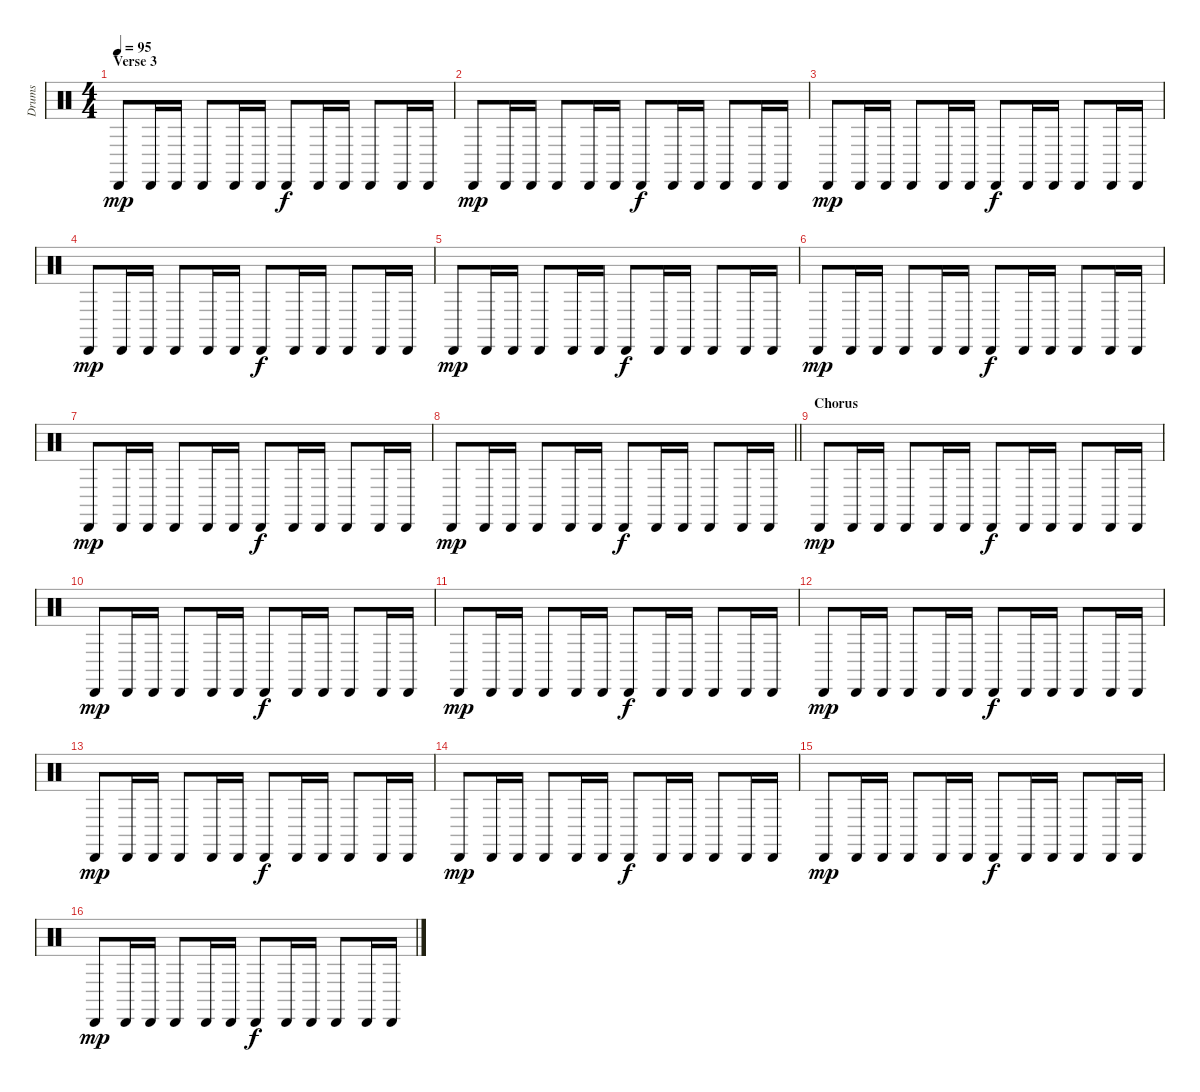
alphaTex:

\track ("Drums" "Drums") {instrument percussion}
\staff {score}
\articulation defaults
\ts (4 4)
\section ("" "Verse 3")
\tempo 95
\clef neutral
\ks c "Cabasa (hit)".8{dy mp} "Cabasa (hit)".16 "Cabasa (hit)".16 "Cabasa (hit)".8 "Cabasa (hit)".16 "Cabasa (hit)".16 "Cabasa (hit)".8{dy f} "Cabasa (hit)".16 "Cabasa (hit)".16 "Cabasa (hit)".8 "Cabasa (hit)".16 "Cabasa (hit)".16
|
"Cabasa (hit)".8{dy mp} "Cabasa (hit)".16 "Cabasa (hit)".16 "Cabasa (hit)".8 "Cabasa (hit)".16 "Cabasa (hit)".16 "Cabasa (hit)".8{dy f} "Cabasa (hit)".16 "Cabasa (hit)".16 "Cabasa (hit)".8 "Cabasa (hit)".16 "Cabasa (hit)".16 |
"Cabasa (hit)".8{dy mp} "Cabasa (hit)".16 "Cabasa (hit)".16 "Cabasa (hit)".8 "Cabasa (hit)".16 "Cabasa (hit)".16 "Cabasa (hit)".8{dy f} "Cabasa (hit)".16 "Cabasa (hit)".16 "Cabasa (hit)".8 "Cabasa (hit)".16 "Cabasa (hit)".16 |
"Cabasa (hit)".8{dy mp} "Cabasa (hit)".16 "Cabasa (hit)".16 "Cabasa (hit)".8 "Cabasa (hit)".16 "Cabasa (hit)".16 "Cabasa (hit)".8{dy f} "Cabasa (hit)".16 "Cabasa (hit)".16 "Cabasa (hit)".8 "Cabasa (hit)".16 "Cabasa (hit)".16 |
"Cabasa (hit)".8{dy mp} "Cabasa (hit)".16 "Cabasa (hit)".16 "Cabasa (hit)".8 "Cabasa (hit)".16 "Cabasa (hit)".16 "Cabasa (hit)".8{dy f} "Cabasa (hit)".16 "Cabasa (hit)".16 "Cabasa (hit)".8 "Cabasa (hit)".16 "Cabasa (hit)".16 |
"Cabasa (hit)".8{dy mp} "Cabasa (hit)".16 "Cabasa (hit)".16 "Cabasa (hit)".8 "Cabasa (hit)".16 "Cabasa (hit)".16 "Cabasa (hit)".8{dy f} "Cabasa (hit)".16 "Cabasa (hit)".16 "Cabasa (hit)".8 "Cabasa (hit)".16 "Cabasa (hit)".16 |
"Cabasa (hit)".8{dy mp} "Cabasa (hit)".16 "Cabasa (hit)".16 "Cabasa (hit)".8 "Cabasa (hit)".16 "Cabasa (hit)".16 "Cabasa (hit)".8{dy f} "Cabasa (hit)".16 "Cabasa (hit)".16 "Cabasa (hit)".8 "Cabasa (hit)".16 "Cabasa (hit)".16 |
\barLineRight lightlight "Cabasa (hit)".8{dy mp} "Cabasa (hit)".16 "Cabasa (hit)".16 "Cabasa (hit)".8 "Cabasa (hit)".16 "Cabasa (hit)".16 "Cabasa (hit)".8{dy f} "Cabasa (hit)".16 "Cabasa (hit)".16 "Cabasa (hit)".8 "Cabasa (hit)".16 "Cabasa (hit)".16
|
\section ("" "Chorus")
"Cabasa (hit)".8{dy mp} "Cabasa (hit)".16 "Cabasa (hit)".16 "Cabasa (hit)".8 "Cabasa (hit)".16 "Cabasa (hit)".16 "Cabasa (hit)".8{dy f} "Cabasa (hit)".16 "Cabasa (hit)".16 "Cabasa (hit)".8 "Cabasa (hit)".16 "Cabasa (hit)".16 |
"Cabasa (hit)".8{dy mp} "Cabasa (hit)".16 "Cabasa (hit)".16 "Cabasa (hit)".8 "Cabasa (hit)".16 "Cabasa (hit)".16 "Cabasa (hit)".8{dy f} "Cabasa (hit)".16 "Cabasa (hit)".16 "Cabasa (hit)".8 "Cabasa (hit)".16 "Cabasa (hit)".16 |
"Cabasa (hit)".8{dy mp} "Cabasa (hit)".16 "Cabasa (hit)".16 "Cabasa (hit)".8 "Cabasa (hit)".16 "Cabasa (hit)".16 "Cabasa (hit)".8{dy f} "Cabasa (hit)".16 "Cabasa (hit)".16 "Cabasa (hit)".8 "Cabasa (hit)".16 "Cabasa (hit)".16 |
"Cabasa (hit)".8{dy mp} "Cabasa (hit)".16 "Cabasa (hit)".16 "Cabasa (hit)".8 "Cabasa (hit)".16 "Cabasa (hit)".16 "Cabasa (hit)".8{dy f} "Cabasa (hit)".16 "Cabasa (hit)".16 "Cabasa (hit)".8 "Cabasa (hit)".16 "Cabasa (hit)".16 |
"Cabasa (hit)".8{dy mp} "Cabasa (hit)".16 "Cabasa (hit)".16 "Cabasa (hit)".8 "Cabasa (hit)".16 "Cabasa (hit)".16 "Cabasa (hit)".8{dy f} "Cabasa (hit)".16 "Cabasa (hit)".16 "Cabasa (hit)".8 "Cabasa (hit)".16 "Cabasa (hit)".16 |
"Cabasa (hit)".8{dy mp} "Cabasa (hit)".16 "Cabasa (hit)".16 "Cabasa (hit)".8 "Cabasa (hit)".16 "Cabasa (hit)".16 "Cabasa (hit)".8{dy f} "Cabasa (hit)".16 "Cabasa (hit)".16 "Cabasa (hit)".8 "Cabasa (hit)".16 "Cabasa (hit)".16 |
"Cabasa (hit)".8{dy mp} "Cabasa (hit)".16 "Cabasa (hit)".16 "Cabasa (hit)".8 "Cabasa (hit)".16 "Cabasa (hit)".16 "Cabasa (hit)".8{dy f} "Cabasa (hit)".16 "Cabasa (hit)".16 "Cabasa (hit)".8 "Cabasa (hit)".16 "Cabasa (hit)".16 |
"Cabasa (hit)".8{dy mp} "Cabasa (hit)".16 "Cabasa (hit)".16 "Cabasa (hit)".8 "Cabasa (hit)".16 "Cabasa (hit)".16 "Cabasa (hit)".8{dy f} "Cabasa (hit)".16 "Cabasa (hit)".16 "Cabasa (hit)".8 "Cabasa (hit)".16 "Cabasa (hit)".16
